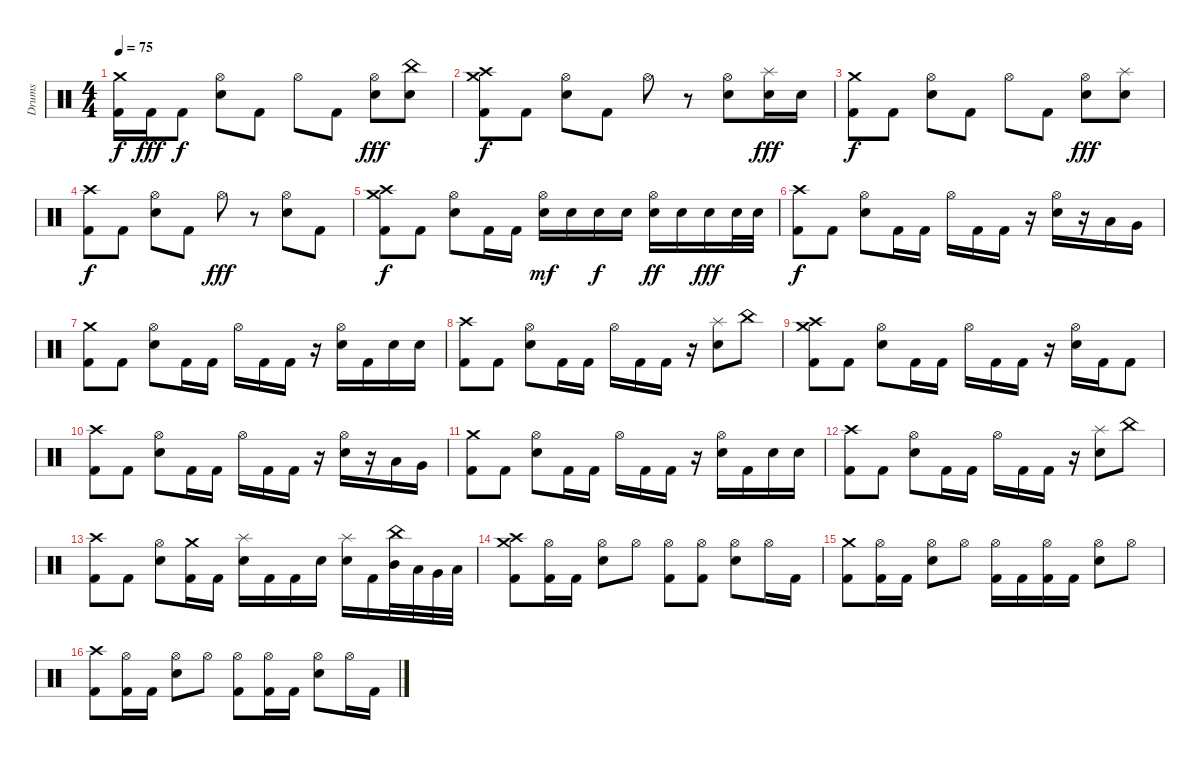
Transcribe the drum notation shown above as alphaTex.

\track ("Drums" "Drums") {instrument percussion}
\staff {score}
\articulation defaults
\ts (4 4)
\tempo 75
\clef neutral
\ks c
("Kick (hit) 2" "Crash medium (hit)").16{dy f} "Kick (hit) 2".16{dy fff} "Kick (hit) 2".8{dy f} ("Electric Snare (hit)" "Hi-Hat (open)").8 "Kick (hit) 2".8 "Hi-Hat (open)".8 "Kick (hit) 2".8 ("Electric Snare (hit)" "Hi-Hat (open)").8{dy fff} ("Electric Snare (hit)" "China (hit)").8 |
("Kick (hit) 2" "Crash high (hit)" "Crash medium (hit)").8{dy f} "Kick (hit) 2".8 ("Electric Snare (hit)" "Hi-Hat (open)").8 "Kick (hit) 2".8 "Hi-Hat (open)".8 r.8 ("Electric Snare (hit)" "Hi-Hat (open)").8 ("Electric Snare (hit)" "Splash (hit)").16{dy fff} "Electric Snare (hit)".16 |
("Kick (hit) 2" "Crash medium (hit)").8{dy f} "Kick (hit) 2".8 ("Electric Snare (hit)" "Hi-Hat (open)").8 "Kick (hit) 2".8 "Hi-Hat (open)".8 "Kick (hit) 2".8 ("Electric Snare (hit)" "Hi-Hat (open)").8{dy fff} ("Electric Snare (hit)" "Splash (hit)").8 |
("Kick (hit) 2" "Crash high (hit)").8{dy f} "Kick (hit) 2".8 ("Electric Snare (hit)" "Hi-Hat (open)").8 "Kick (hit) 2".8 "Hi-Hat (open)".8{dy fff} r.8 ("Electric Snare (hit)" "Hi-Hat (open)").8 "Kick (hit) 2".8 |
("Kick (hit) 2" "Crash high (hit)" "Crash medium (hit)").8{dy f} "Kick (hit) 2".8 ("Electric Snare (hit)" "Hi-Hat (open)").8 "Kick (hit) 2".16 "Kick (hit) 2".16 ("Electric Snare (hit)" "Hi-Hat (open)").16{dy mf} "Electric Snare (hit)".16 "Electric Snare (hit)".16{dy f} "Electric Snare (hit)".16 ("Electric Snare (hit)" "Hi-Hat (open)").16{dy ff} "Electric Snare (hit)".16 "Electric Snare (hit)".16{dy fff} "Electric Snare (hit)".32 "Electric Snare (hit)".32 |
("Kick (hit) 2" "Crash high (hit)").8{dy f} "Kick (hit) 2".8 ("Electric Snare (hit)" "Hi-Hat (open)").8 "Kick (hit) 2".16 "Kick (hit) 2".16 "Hi-Hat (open)".16 "Kick (hit) 2".16 "Kick (hit) 2".16 r.16 ("Electric Snare (hit)" "Hi-Hat (open)").16 r.16 "Low Tom (hit)".16 "Very Low Tom (hit)".16 |
("Kick (hit) 2" "Crash medium (hit)").8 "Kick (hit) 2".8 ("Electric Snare (hit)" "Hi-Hat (open)").8 "Kick (hit) 2".16 "Kick (hit) 2".16 "Hi-Hat (open)".16 "Kick (hit) 2".16 "Kick (hit) 2".16 r.16 ("Electric Snare (hit)" "Hi-Hat (open)").16 "Kick (hit) 2".16 "Electric Snare (hit)".16 "Electric Snare (hit)".16 |
("Kick (hit) 2" "Crash high (hit)").8 "Kick (hit) 2".8 ("Electric Snare (hit)" "Hi-Hat (open)").8 "Kick (hit) 2".16 "Kick (hit) 2".16 "Hi-Hat (open)".16 "Kick (hit) 2".16 "Kick (hit) 2".16 r.16 ("Electric Snare (hit)" "Splash (hit)").8 "China (hit)".8 |
("Kick (hit) 2" "Crash high (hit)" "Crash medium (hit)").8 "Kick (hit) 2".8 ("Electric Snare (hit)" "Hi-Hat (open)").8 "Kick (hit) 2".16 "Kick (hit) 2".16 "Hi-Hat (open)".16 "Kick (hit) 2".16 "Kick (hit) 2".16 r.16 ("Electric Snare (hit)" "Hi-Hat (open)").16 "Kick (hit) 2".16 "Kick (hit) 2".8 |
("Kick (hit) 2" "Crash high (hit)").8 "Kick (hit) 2".8 ("Electric Snare (hit)" "Hi-Hat (open)").8 "Kick (hit) 2".16 "Kick (hit) 2".16 "Hi-Hat (open)".16 "Kick (hit) 2".16 "Kick (hit) 2".16 r.16 ("Electric Snare (hit)" "Hi-Hat (open)").16 r.16 "Low Tom (hit)".16 "Very Low Tom (hit)".16 |
("Kick (hit) 2" "Crash medium (hit)").8 "Kick (hit) 2".8 ("Electric Snare (hit)" "Hi-Hat (open)").8 "Kick (hit) 2".16 "Kick (hit) 2".16 "Hi-Hat (open)".16 "Kick (hit) 2".16 "Kick (hit) 2".16 r.16 ("Electric Snare (hit)" "Hi-Hat (open)").16 "Kick (hit) 2".16 "Electric Snare (hit)".16 "Electric Snare (hit)".16 |
("Kick (hit) 2" "Crash high (hit)").8 "Kick (hit) 2".8 ("Electric Snare (hit)" "Hi-Hat (open)").8 "Kick (hit) 2".16 "Kick (hit) 2".16 "Hi-Hat (open)".16 "Kick (hit) 2".16 "Kick (hit) 2".16 r.16 ("Electric Snare (hit)" "Splash (hit)").8 "China (hit)".8 |
("Kick (hit) 2" "Crash high (hit)").8 "Kick (hit) 2".8 ("Electric Snare (hit)" "Hi-Hat (open)").8 ("Kick (hit) 2" "Crash medium (hit)").16 "Kick (hit) 2".16 ("Electric Snare (hit)" "Splash (hit)").16 "Kick (hit) 2".16 "Kick (hit) 2".16 "Electric Snare (hit)".16 ("Electric Snare (hit)" "Splash (hit)").16 "Kick (hit) 2".16 ("Mid Tom (hit)" "China (hit)").32 "Low Tom (hit)".32 "Very Low Tom (hit)".32 "Low Floor Tom (hit)".32 |
("Kick (hit) 2" "Crash high (hit)" "Crash medium (hit)").8 ("Kick (hit) 2" "Hi-Hat (open)").16 "Kick (hit) 2".16 ("Electric Snare (hit)" "Hi-Hat (open)").8 "Hi-Hat (open)".8 ("Kick (hit) 2" "Hi-Hat (open)").8 ("Kick (hit) 2" "Hi-Hat (open)").8 ("Electric Snare (hit)" "Hi-Hat (open)").8 "Hi-Hat (open)".16 "Kick (hit) 2".16 |
("Kick (hit) 2" "Crash medium (hit)").8 ("Kick (hit) 2" "Hi-Hat (open)").16 "Kick (hit) 2".16 ("Electric Snare (hit)" "Hi-Hat (open)").8 "Hi-Hat (open)".8 ("Kick (hit) 2" "Hi-Hat (open)").16 "Kick (hit) 2".16 ("Kick (hit) 2" "Hi-Hat (open)").16 "Kick (hit) 2".16 ("Electric Snare (hit)" "Hi-Hat (open)").8 "Hi-Hat (open)".8 |
("Kick (hit) 2" "Crash high (hit)").8 ("Kick (hit) 2" "Hi-Hat (open)").16 "Kick (hit) 2".16 ("Electric Snare (hit)" "Hi-Hat (open)").8 "Hi-Hat (open)".8 ("Kick (hit) 2" "Hi-Hat (open)").8 ("Kick (hit) 2" "Hi-Hat (open)").16 "Kick (hit) 2".16 ("Electric Snare (hit)" "Hi-Hat (open)").8 "Hi-Hat (open)".16 "Kick (hit) 2".16
